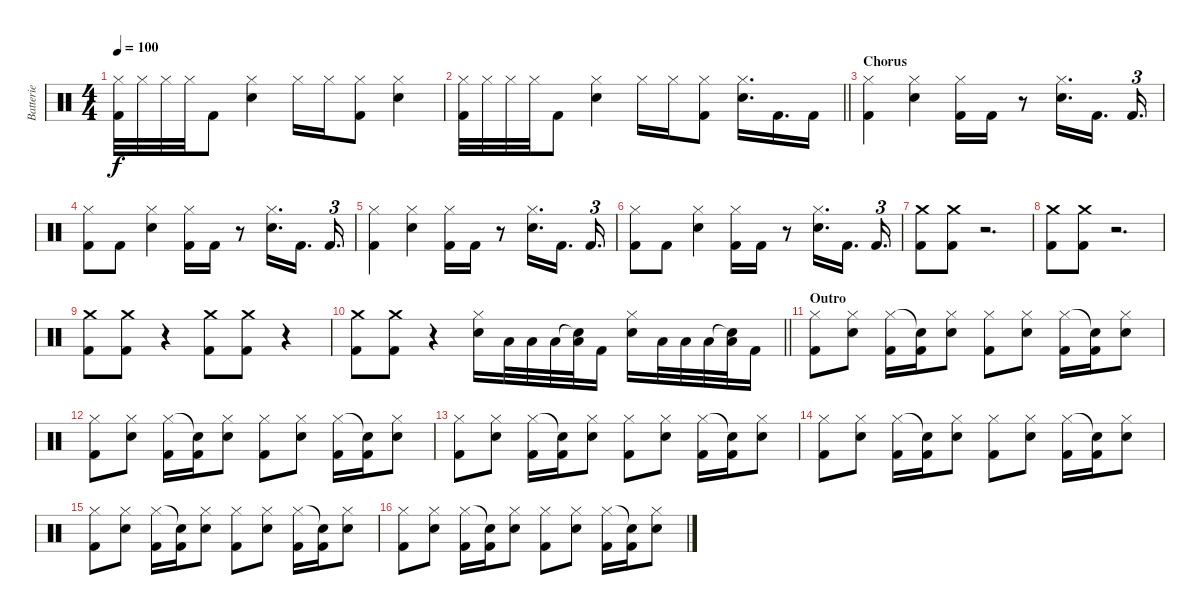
\track ("Batterie" "Batterie") {instrument percussion}
\staff {score}
\articulation defaults
\ts (4 4)
\tempo 100
\clef neutral
\ks c
("Kick (hit) 2" "Hi-Hat (closed)").32{dy f} "Hi-Hat (closed)".32 "Hi-Hat (closed)".32 "Hi-Hat (closed)".32 "Kick (hit) 2".8 ("Electric Snare (hit)" "Hi-Hat (closed)").4 "Hi-Hat (closed)".16 "Hi-Hat (closed)".16 ("Kick (hit) 2" "Hi-Hat (closed)").8 ("Electric Snare (hit)" "Hi-Hat (closed)").4 |
\barLineRight lightlight
("Kick (hit) 2" "Hi-Hat (closed)").32 "Hi-Hat (closed)".32 "Hi-Hat (closed)".32 "Hi-Hat (closed)".32 "Kick (hit) 2".8 ("Electric Snare (hit)" "Hi-Hat (closed)").4 "Hi-Hat (closed)".16 "Hi-Hat (closed)".16 ("Kick (hit) 2" "Hi-Hat (closed)").8 ("Electric Snare (hit)" "Hi-Hat (closed)").16{d} "Kick (hit) 2".16{d} "Kick (hit) 2".16 |
\section ("" "Chorus")
("Kick (hit) 2" "Hi-Hat (closed)").4 ("Electric Snare (hit)" "Hi-Hat (closed)").4 ("Kick (hit) 2" "Hi-Hat (closed)").16 "Kick (hit) 2".16 r.8 ("Electric Snare (hit)" "Hi-Hat (closed)").16{d} "Kick (hit) 2".16{d} "Kick (hit) 2".16{d tu (3 2)} |
("Kick (hit) 2" "Hi-Hat (closed)").8 "Kick (hit) 2".8 ("Electric Snare (hit)" "Hi-Hat (closed)").4 ("Kick (hit) 2" "Hi-Hat (closed)").16 "Kick (hit) 2".16 r.8 ("Electric Snare (hit)" "Hi-Hat (closed)").16{d} "Kick (hit) 2".16{d} "Kick (hit) 2".16{d tu (3 2)} |
("Kick (hit) 2" "Hi-Hat (closed)").4 ("Electric Snare (hit)" "Hi-Hat (closed)").4 ("Kick (hit) 2" "Hi-Hat (closed)").16 "Kick (hit) 2".16 r.8 ("Electric Snare (hit)" "Hi-Hat (closed)").16{d} "Kick (hit) 2".16{d} "Kick (hit) 2".16{d tu (3 2)} |
("Kick (hit) 2" "Hi-Hat (closed)").8 "Kick (hit) 2".8 ("Electric Snare (hit)" "Hi-Hat (closed)").4 ("Kick (hit) 2" "Hi-Hat (closed)").16 "Kick (hit) 2".16 r.8 ("Electric Snare (hit)" "Hi-Hat (closed)").16{d} "Kick (hit) 2".16{d} "Kick (hit) 2".16{d tu (3 2)} |
("Kick (hit) 2" "Crash medium (hit)").8 ("Kick (hit) 2" "Crash medium (hit)").8 r.2{d} |
("Kick (hit) 2" "Crash medium (hit)").8 ("Kick (hit) 2" "Crash medium (hit)").8 r.2{d} |
("Kick (hit) 2" "Crash medium (hit)").8 ("Kick (hit) 2" "Crash medium (hit)").8 r.4 ("Kick (hit) 2" "Crash medium (hit)").8 ("Kick (hit) 2" "Crash medium (hit)").8 r.4 |
\barLineRight lightlight
("Kick (hit) 2" "Crash medium (hit)").8 ("Kick (hit) 2" "Crash medium (hit)").8 r.4 ("Electric Snare (hit)" "Hi-Hat (closed)").16 "Low Tom (hit)".32 "Low Tom (hit)".32 "Low Tom (hit)".32 ("Snare (hit)"{t} "Low Tom (hit)").32 "Kick (hit) 2".16 ("Electric Snare (hit)" "Hi-Hat (closed)").16 "Low Tom (hit)".32 "Low Tom (hit)".32 "Low Tom (hit)".32 ("Snare (hit)"{t} "Low Tom (hit)").32 "Kick (hit) 2".16 |
\section ("" "Outro")
("Kick (hit) 2" "Hi-Hat (closed)").8 ("Electric Snare (hit)" "Hi-Hat (closed)").8 ("Kick (hit) 2" "Hi-Hat (closed)").16 ("Kick (hit) 2" "Snare (hit)"{t}).16 ("Electric Snare (hit)" "Hi-Hat (closed)").8 ("Kick (hit) 2" "Hi-Hat (closed)").8 ("Electric Snare (hit)" "Hi-Hat (closed)").8 ("Kick (hit) 2" "Hi-Hat (closed)").16 ("Kick (hit) 2" "Snare (hit)"{t}).16 ("Electric Snare (hit)" "Hi-Hat (closed)").8 |
("Kick (hit) 2" "Hi-Hat (closed)").8 ("Electric Snare (hit)" "Hi-Hat (closed)").8 ("Kick (hit) 2" "Hi-Hat (closed)").16 ("Kick (hit) 2" "Snare (hit)"{t}).16 ("Electric Snare (hit)" "Hi-Hat (closed)").8 ("Kick (hit) 2" "Hi-Hat (closed)").8 ("Electric Snare (hit)" "Hi-Hat (closed)").8 ("Kick (hit) 2" "Hi-Hat (closed)").16 ("Kick (hit) 2" "Snare (hit)"{t}).16 ("Electric Snare (hit)" "Hi-Hat (closed)").8 |
("Kick (hit) 2" "Hi-Hat (closed)").8 ("Electric Snare (hit)" "Hi-Hat (closed)").8 ("Kick (hit) 2" "Hi-Hat (closed)").16 ("Kick (hit) 2" "Snare (hit)"{t}).16 ("Electric Snare (hit)" "Hi-Hat (closed)").8 ("Kick (hit) 2" "Hi-Hat (closed)").8 ("Electric Snare (hit)" "Hi-Hat (closed)").8 ("Kick (hit) 2" "Hi-Hat (closed)").16 ("Kick (hit) 2" "Snare (hit)"{t}).16 ("Electric Snare (hit)" "Hi-Hat (closed)").8 |
("Kick (hit) 2" "Hi-Hat (closed)").8 ("Electric Snare (hit)" "Hi-Hat (closed)").8 ("Kick (hit) 2" "Hi-Hat (closed)").16 ("Kick (hit) 2" "Snare (hit)"{t}).16 ("Electric Snare (hit)" "Hi-Hat (closed)").8 ("Kick (hit) 2" "Hi-Hat (closed)").8 ("Electric Snare (hit)" "Hi-Hat (closed)").8 ("Kick (hit) 2" "Hi-Hat (closed)").16 ("Kick (hit) 2" "Snare (hit)"{t}).16 ("Electric Snare (hit)" "Hi-Hat (closed)").8 |
("Kick (hit) 2" "Hi-Hat (closed)").8 ("Electric Snare (hit)" "Hi-Hat (closed)").8 ("Kick (hit) 2" "Hi-Hat (closed)").16 ("Kick (hit) 2" "Snare (hit)"{t}).16 ("Electric Snare (hit)" "Hi-Hat (closed)").8 ("Kick (hit) 2" "Hi-Hat (closed)").8 ("Electric Snare (hit)" "Hi-Hat (closed)").8 ("Kick (hit) 2" "Hi-Hat (closed)").16 ("Kick (hit) 2" "Snare (hit)"{t}).16 ("Electric Snare (hit)" "Hi-Hat (closed)").8 |
("Kick (hit) 2" "Hi-Hat (closed)").8 ("Electric Snare (hit)" "Hi-Hat (closed)").8 ("Kick (hit) 2" "Hi-Hat (closed)").16 ("Kick (hit) 2" "Snare (hit)"{t}).16 ("Electric Snare (hit)" "Hi-Hat (closed)").8 ("Kick (hit) 2" "Hi-Hat (closed)").8 ("Electric Snare (hit)" "Hi-Hat (closed)").8 ("Kick (hit) 2" "Hi-Hat (closed)").16 ("Kick (hit) 2" "Snare (hit)"{t}).16 ("Electric Snare (hit)" "Hi-Hat (closed)").8
